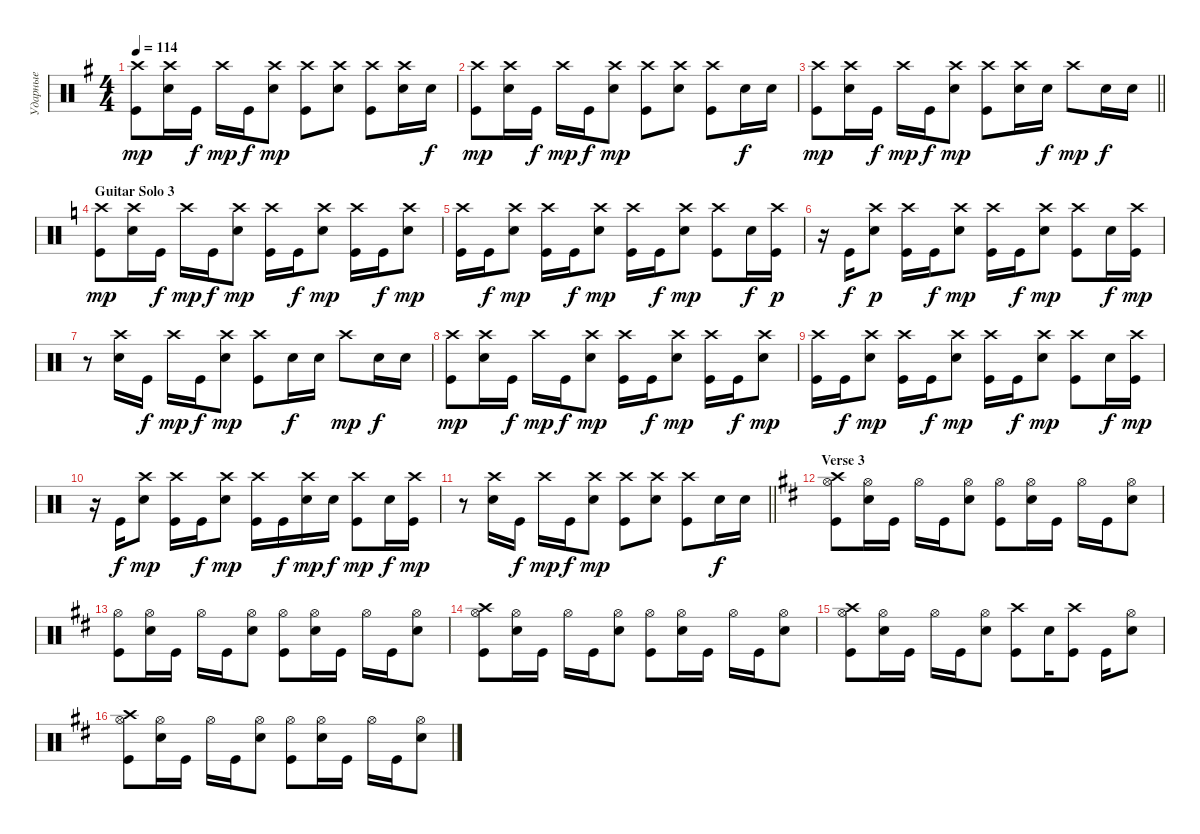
\track ("Ударные" "Ударные") {instrument percussion}
\staff {score}
\articulation defaults
\ts (4 4)
\tempo 114
\clef neutral
\ks eminor
("Crash high (hit)" "Kick (hit)").8{dy mp} ("Crash high (hit)" "Snare (hit) 2").16 "Kick (hit)".16{dy f} "Crash high (hit)".16{dy mp} "Kick (hit)".16{dy f} ("Crash high (hit)" "Snare (hit) 2").8{dy mp} ("Kick (hit)" "Crash high (hit)").8 ("Crash high (hit)" "Snare (hit) 2").8 ("Kick (hit)" "Crash high (hit)").8 ("Crash high (hit)" "Snare (hit) 2").16 "Snare (hit) 2".16{dy f} |
("Crash high (hit)" "Kick (hit)").8{dy mp} ("Crash high (hit)" "Snare (hit) 2").16 "Kick (hit)".16{dy f} "Crash high (hit)".16{dy mp} "Kick (hit)".16{dy f} ("Crash high (hit)" "Snare (hit) 2").8{dy mp} ("Kick (hit)" "Crash high (hit)").8 ("Crash high (hit)" "Snare (hit) 2").8 ("Kick (hit)" "Crash high (hit)").8 "Snare (hit) 2".16{dy f} "Snare (hit) 2".16 |
\barLineRight lightlight
("Crash high (hit)" "Kick (hit)").8{dy mp} ("Crash high (hit)" "Snare (hit) 2").16 "Kick (hit)".16{dy f} "Crash high (hit)".16{dy mp} "Kick (hit)".16{dy f} ("Crash high (hit)" "Snare (hit) 2").8{dy mp} ("Kick (hit)" "Crash high (hit)").8 ("Crash high (hit)" "Snare (hit) 2").16 "Snare (hit) 2".16{dy f} "Crash high (hit)".8{dy mp} "Snare (hit) 2".16{dy f} "Snare (hit) 2".16 |
\section ("" "Guitar Solo 3")
\ks aminor
("Crash high (hit)" "Kick (hit)").8{dy mp} ("Crash high (hit)" "Snare (hit) 2").16 "Kick (hit)".16{dy f} "Crash high (hit)".16{dy mp} "Kick (hit)".16{dy f} ("Crash high (hit)" "Snare (hit) 2").8{dy mp} ("Kick (hit)" "Crash high (hit)").16 "Kick (hit)".16{dy f} ("Crash high (hit)" "Snare (hit) 2").8{dy mp} ("Kick (hit)" "Crash high (hit)").16 "Kick (hit)".16{dy f} ("Crash high (hit)" "Snare (hit) 2").8{dy mp} |
("Crash high (hit)" "Kick (hit)").16 "Kick (hit)".16{dy f} ("Crash high (hit)" "Snare (hit) 2").8{dy mp} ("Crash high (hit)" "Kick (hit)").16 "Kick (hit)".16{dy f} ("Crash high (hit)" "Snare (hit) 2").8{dy mp} ("Kick (hit)" "Crash high (hit)").16 "Kick (hit)".16{dy f} ("Crash high (hit)" "Snare (hit) 2").8{dy mp} ("Kick (hit)" "Crash high (hit)").8 "Snare (hit) 2".16{dy f} ("Kick (hit)" "Crash high (hit)").16{dy p} |
r.16 "Kick (hit)".16{dy f} ("Crash high (hit)" "Snare (hit) 2").8{dy p} ("Crash high (hit)" "Kick (hit)").16 "Kick (hit)".16{dy f} ("Crash high (hit)" "Snare (hit) 2").8{dy mp} ("Kick (hit)" "Crash high (hit)").16 "Kick (hit)".16{dy f} ("Crash high (hit)" "Snare (hit) 2").8{dy mp} ("Kick (hit)" "Crash high (hit)").8 "Snare (hit) 2".16{dy f} ("Kick (hit)" "Crash high (hit)").16{dy mp} |
r.8 ("Crash high (hit)" "Snare (hit) 2").16 "Kick (hit)".16{dy f} "Crash high (hit)".16{dy mp} "Kick (hit)".16{dy f} ("Crash high (hit)" "Snare (hit) 2").8{dy mp} ("Kick (hit)" "Crash high (hit)").8 "Snare (hit) 2".16{dy f} "Snare (hit) 2".16 "Crash high (hit)".8{dy mp} "Snare (hit) 2".16{dy f} "Snare (hit) 2".16 |
("Crash high (hit)" "Kick (hit)").8{dy mp} ("Crash high (hit)" "Snare (hit) 2").16 "Kick (hit)".16{dy f} "Crash high (hit)".16{dy mp} "Kick (hit)".16{dy f} ("Crash high (hit)" "Snare (hit) 2").8{dy mp} ("Kick (hit)" "Crash high (hit)").16 "Kick (hit)".16{dy f} ("Crash high (hit)" "Snare (hit) 2").8{dy mp} ("Kick (hit)" "Crash high (hit)").16 "Kick (hit)".16{dy f} ("Crash high (hit)" "Snare (hit) 2").8{dy mp} |
("Crash high (hit)" "Kick (hit)").16 "Kick (hit)".16{dy f} ("Crash high (hit)" "Snare (hit) 2").8{dy mp} ("Crash high (hit)" "Kick (hit)").16 "Kick (hit)".16{dy f} ("Crash high (hit)" "Snare (hit) 2").8{dy mp} ("Kick (hit)" "Crash high (hit)").16 "Kick (hit)".16{dy f} ("Crash high (hit)" "Snare (hit) 2").8{dy mp} ("Kick (hit)" "Crash high (hit)").8 "Snare (hit) 2".16{dy f} ("Kick (hit)" "Crash high (hit)").16{dy mp} |
r.16 "Kick (hit)".16{dy f} ("Crash high (hit)" "Snare (hit) 2").8{dy mp} ("Crash high (hit)" "Kick (hit)").16 "Kick (hit)".16{dy f} ("Crash high (hit)" "Snare (hit) 2").8{dy mp} ("Kick (hit)" "Crash high (hit)").16 "Kick (hit)".16{dy f} ("Crash high (hit)" "Snare (hit) 2").16{dy mp} "Snare (hit) 2".16{dy f} ("Kick (hit)" "Crash high (hit)").8{dy mp} "Snare (hit) 2".16{dy f} ("Kick (hit)" "Crash high (hit)").16{dy mp} |
\barLineRight lightlight
r.8 ("Crash high (hit)" "Snare (hit) 2").16 "Kick (hit)".16{dy f} "Crash high (hit)".16{dy mp} "Kick (hit)".16{dy f} ("Crash high (hit)" "Snare (hit) 2").8{dy mp} ("Kick (hit)" "Crash high (hit)").8 ("Crash high (hit)" "Snare (hit) 2").8 ("Kick (hit)" "Crash high (hit)").8 "Snare (hit) 2".16{dy f} "Snare (hit) 2".16 |
\section ("" "Verse 3")
\ks bminor
("Crash high (hit)" "Hi-Hat (open)" "Kick (hit)").8 ("Hi-Hat (open)" "Snare (hit) 2").16 "Kick (hit)".16 "Hi-Hat (open)".16 "Kick (hit)".16 ("Hi-Hat (open)" "Snare (hit) 2").8 ("Kick (hit)" "Hi-Hat (open)").8 ("Hi-Hat (open)" "Snare (hit) 2").16 "Kick (hit)".16 "Hi-Hat (open)".16 "Kick (hit)".16 ("Hi-Hat (open)" "Snare (hit) 2").8 |
("Hi-Hat (open)" "Kick (hit)").8 ("Hi-Hat (open)" "Snare (hit) 2").16 "Kick (hit)".16 "Hi-Hat (open)".16 "Kick (hit)".16 ("Hi-Hat (open)" "Snare (hit) 2").8 ("Kick (hit)" "Hi-Hat (open)").8 ("Hi-Hat (open)" "Snare (hit) 2").16 "Kick (hit)".16 "Hi-Hat (open)".16 "Kick (hit)".16 ("Hi-Hat (open)" "Snare (hit) 2").8 |
("Hi-Hat (open)" "Crash high (hit)" "Kick (hit)").8 ("Hi-Hat (open)" "Snare (hit) 2").16 "Kick (hit)".16 "Hi-Hat (open)".16 "Kick (hit)".16 ("Hi-Hat (open)" "Snare (hit) 2").8 ("Kick (hit)" "Hi-Hat (open)").8 ("Hi-Hat (open)" "Snare (hit) 2").16 "Kick (hit)".16 "Hi-Hat (open)".16 "Kick (hit)".16 ("Hi-Hat (open)" "Snare (hit) 2").8 |
("Kick (hit)" "Crash high (hit)" "Hi-Hat (open)").8 ("Hi-Hat (open)" "Snare (hit) 2").16 "Kick (hit)".16 "Hi-Hat (open)".16 "Kick (hit)".16 ("Hi-Hat (open)" "Snare (hit) 2").8 ("Crash high (hit)" "Kick (hit)").8 "Snare (hit) 2".16 ("Crash high (hit)" "Kick (hit)").8 "Kick (hit)".16 ("Hi-Hat (open)" "Snare (hit) 2").8 |
("Crash high (hit)" "Hi-Hat (open)" "Kick (hit)").8 ("Hi-Hat (open)" "Snare (hit) 2").16 "Kick (hit)".16 "Hi-Hat (open)".16 "Kick (hit)".16 ("Hi-Hat (open)" "Snare (hit) 2").8 ("Kick (hit)" "Hi-Hat (open)").8 ("Hi-Hat (open)" "Snare (hit) 2").16 "Kick (hit)".16 "Hi-Hat (open)".16 "Kick (hit)".16 ("Hi-Hat (open)" "Snare (hit) 2").8
